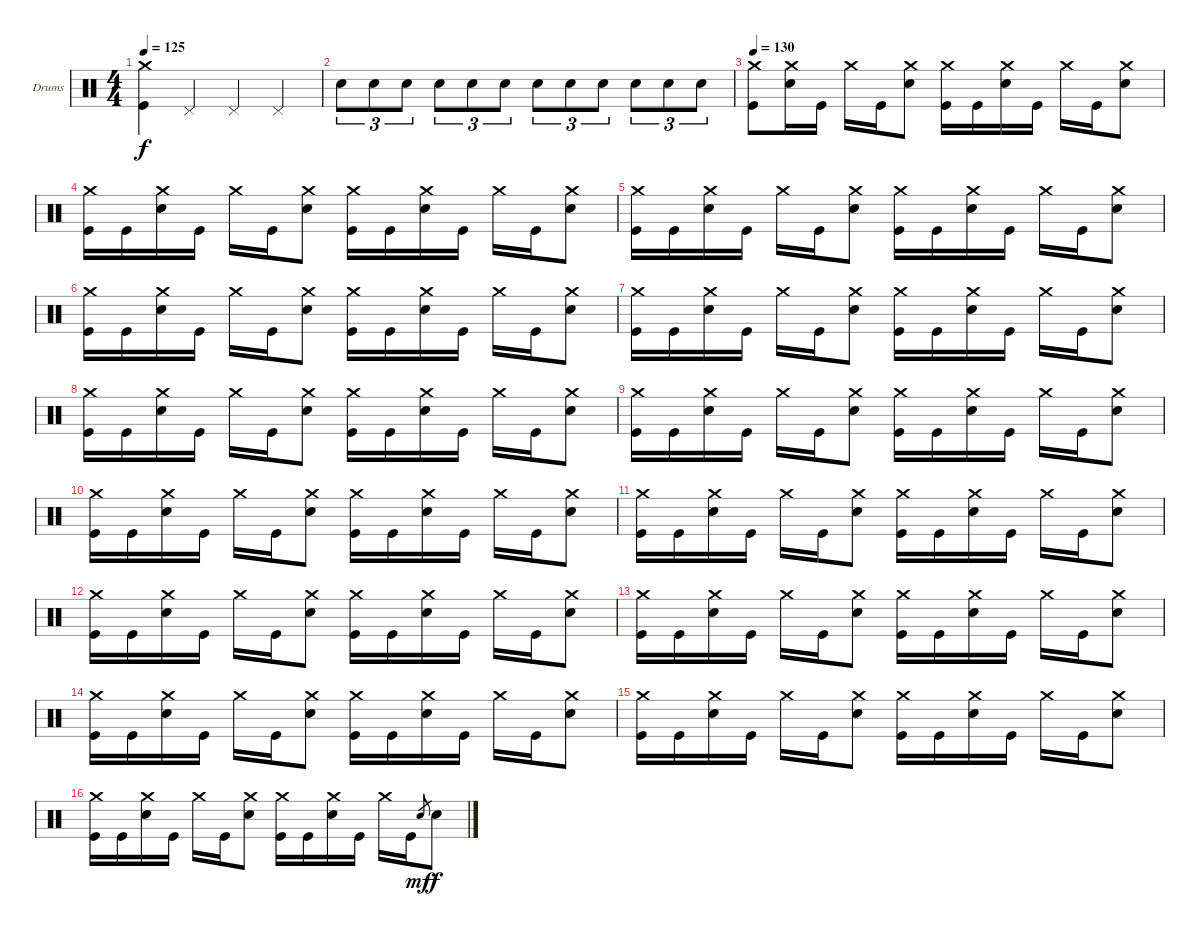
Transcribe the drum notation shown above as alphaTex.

\bracketExtendMode groupsimilarinstruments
\firstSystemTrackNameOrientation horizontal
\otherSystemsTrackNameOrientation horizontal
\track ("Drumkit" "Drums") {instrument percussion}
\staff {score}
\articulation defaults
\ts (4 4)
\tempo 125
\clef neutral
\ks c
("Kick (hit)" "Crash medium (hit)").4{dy f} "Pedal Hi-Hat (hit)".4 "Pedal Hi-Hat (hit)".4 "Pedal Hi-Hat (hit)".4 |
"Snare (hit) 2".8{tu (3 2)} "Snare (hit) 2".8{tu (3 2)} "Snare (hit) 2".8{tu (3 2)} "Snare (hit) 2".8{tu (3 2)} "Snare (hit) 2".8{tu (3 2)} "Snare (hit) 2".8{tu (3 2)} "Snare (hit) 2".8{tu (3 2)} "Snare (hit) 2".8{tu (3 2)} "Snare (hit) 2".8{tu (3 2)} "Snare (hit) 2".8{tu (3 2)} "Snare (hit) 2".8{tu (3 2)} "Snare (hit) 2".8{tu (3 2)} |
\tempo 130
("Kick (hit)" "Crash medium (hit)").8 ("Snare (hit) 2" "Crash medium (hit)").16 "Kick (hit)".16 "Crash medium (hit)".16 "Kick (hit)".16 ("Snare (hit) 2" "Crash medium (hit)").8 ("Kick (hit)" "Crash medium (hit)").16 "Kick (hit)".16 ("Snare (hit) 2" "Crash medium (hit)").16 "Kick (hit)".16 "Crash medium (hit)".16 "Kick (hit)".16 ("Snare (hit) 2" "Crash medium (hit)").8 |
("Kick (hit)" "Crash medium (hit)").16 "Kick (hit)".16 ("Snare (hit) 2" "Crash medium (hit)").16 "Kick (hit)".16 "Crash medium (hit)".16 "Kick (hit)".16 ("Snare (hit) 2" "Crash medium (hit)").8 ("Kick (hit)" "Crash medium (hit)").16 "Kick (hit)".16 ("Snare (hit) 2" "Crash medium (hit)").16 "Kick (hit)".16 "Crash medium (hit)".16 "Kick (hit)".16 ("Snare (hit) 2" "Crash medium (hit)").8 |
("Kick (hit)" "Crash medium (hit)").16 "Kick (hit)".16 ("Snare (hit) 2" "Crash medium (hit)").16 "Kick (hit)".16 "Crash medium (hit)".16 "Kick (hit)".16 ("Snare (hit) 2" "Crash medium (hit)").8 ("Kick (hit)" "Crash medium (hit)").16 "Kick (hit)".16 ("Snare (hit) 2" "Crash medium (hit)").16 "Kick (hit)".16 "Crash medium (hit)".16 "Kick (hit)".16 ("Snare (hit) 2" "Crash medium (hit)").8 |
("Kick (hit)" "Crash medium (hit)").16 "Kick (hit)".16 ("Snare (hit) 2" "Crash medium (hit)").16 "Kick (hit)".16 "Crash medium (hit)".16 "Kick (hit)".16 ("Snare (hit) 2" "Crash medium (hit)").8 ("Kick (hit)" "Crash medium (hit)").16 "Kick (hit)".16 ("Snare (hit) 2" "Crash medium (hit)").16 "Kick (hit)".16 "Crash medium (hit)".16 "Kick (hit)".16 ("Snare (hit) 2" "Crash medium (hit)").8 |
("Kick (hit)" "Crash medium (hit)").16 "Kick (hit)".16 ("Snare (hit) 2" "Crash medium (hit)").16 "Kick (hit)".16 "Crash medium (hit)".16 "Kick (hit)".16 ("Snare (hit) 2" "Crash medium (hit)").8 ("Kick (hit)" "Crash medium (hit)").16 "Kick (hit)".16 ("Snare (hit) 2" "Crash medium (hit)").16 "Kick (hit)".16 "Crash medium (hit)".16 "Kick (hit)".16 ("Snare (hit) 2" "Crash medium (hit)").8 |
("Kick (hit)" "Crash medium (hit)").16 "Kick (hit)".16 ("Snare (hit) 2" "Crash medium (hit)").16 "Kick (hit)".16 "Crash medium (hit)".16 "Kick (hit)".16 ("Snare (hit) 2" "Crash medium (hit)").8 ("Kick (hit)" "Crash medium (hit)").16 "Kick (hit)".16 ("Snare (hit) 2" "Crash medium (hit)").16 "Kick (hit)".16 "Crash medium (hit)".16 "Kick (hit)".16 ("Snare (hit) 2" "Crash medium (hit)").8 |
("Kick (hit)" "Crash medium (hit)").16 "Kick (hit)".16 ("Snare (hit) 2" "Crash medium (hit)").16 "Kick (hit)".16 "Crash medium (hit)".16 "Kick (hit)".16 ("Snare (hit) 2" "Crash medium (hit)").8 ("Kick (hit)" "Crash medium (hit)").16 "Kick (hit)".16 ("Snare (hit) 2" "Crash medium (hit)").16 "Kick (hit)".16 "Crash medium (hit)".16 "Kick (hit)".16 ("Snare (hit) 2" "Crash medium (hit)").8 |
("Kick (hit)" "Crash medium (hit)").16 "Kick (hit)".16 ("Snare (hit) 2" "Crash medium (hit)").16 "Kick (hit)".16 "Crash medium (hit)".16 "Kick (hit)".16 ("Snare (hit) 2" "Crash medium (hit)").8 ("Kick (hit)" "Crash medium (hit)").16 "Kick (hit)".16 ("Snare (hit) 2" "Crash medium (hit)").16 "Kick (hit)".16 "Crash medium (hit)".16 "Kick (hit)".16 ("Snare (hit) 2" "Crash medium (hit)").8 |
("Kick (hit)" "Crash medium (hit)").16 "Kick (hit)".16 ("Snare (hit) 2" "Crash medium (hit)").16 "Kick (hit)".16 "Crash medium (hit)".16 "Kick (hit)".16 ("Snare (hit) 2" "Crash medium (hit)").8 ("Kick (hit)" "Crash medium (hit)").16 "Kick (hit)".16 ("Snare (hit) 2" "Crash medium (hit)").16 "Kick (hit)".16 "Crash medium (hit)".16 "Kick (hit)".16 ("Snare (hit) 2" "Crash medium (hit)").8 |
("Kick (hit)" "Crash medium (hit)").16 "Kick (hit)".16 ("Snare (hit) 2" "Crash medium (hit)").16 "Kick (hit)".16 "Crash medium (hit)".16 "Kick (hit)".16 ("Snare (hit) 2" "Crash medium (hit)").8 ("Kick (hit)" "Crash medium (hit)").16 "Kick (hit)".16 ("Snare (hit) 2" "Crash medium (hit)").16 "Kick (hit)".16 "Crash medium (hit)".16 "Kick (hit)".16 ("Snare (hit) 2" "Crash medium (hit)").8 |
("Kick (hit)" "Crash medium (hit)").16 "Kick (hit)".16 ("Snare (hit) 2" "Crash medium (hit)").16 "Kick (hit)".16 "Crash medium (hit)".16 "Kick (hit)".16 ("Snare (hit) 2" "Crash medium (hit)").8 ("Kick (hit)" "Crash medium (hit)").16 "Kick (hit)".16 ("Snare (hit) 2" "Crash medium (hit)").16 "Kick (hit)".16 "Crash medium (hit)".16 "Kick (hit)".16 ("Snare (hit) 2" "Crash medium (hit)").8 |
("Kick (hit)" "Crash medium (hit)").16 "Kick (hit)".16 ("Snare (hit) 2" "Crash medium (hit)").16 "Kick (hit)".16 "Crash medium (hit)".16 "Kick (hit)".16 ("Snare (hit) 2" "Crash medium (hit)").8 ("Kick (hit)" "Crash medium (hit)").16 "Kick (hit)".16 ("Snare (hit) 2" "Crash medium (hit)").16 "Kick (hit)".16 "Crash medium (hit)".16 "Kick (hit)".16 ("Snare (hit) 2" "Crash medium (hit)").8 |
("Kick (hit)" "Crash medium (hit)").16 "Kick (hit)".16 ("Snare (hit) 2" "Crash medium (hit)").16 "Kick (hit)".16 "Crash medium (hit)".16 "Kick (hit)".16 ("Snare (hit) 2" "Crash medium (hit)").8 ("Kick (hit)" "Crash medium (hit)").16 "Kick (hit)".16 ("Snare (hit) 2" "Crash medium (hit)").16 "Kick (hit)".16 "Crash medium (hit)".16 "Kick (hit)".16 ("Snare (hit) 2" "Crash medium (hit)").8 |
("Kick (hit)" "Crash medium (hit)").16 "Kick (hit)".16 ("Snare (hit) 2" "Crash medium (hit)").16 "Kick (hit)".16 "Crash medium (hit)".16 "Kick (hit)".16 ("Snare (hit) 2" "Crash medium (hit)").8 ("Kick (hit)" "Crash medium (hit)").16 "Kick (hit)".16 ("Snare (hit) 2" "Crash medium (hit)").16 "Kick (hit)".16 "Crash medium (hit)".16 "Kick (hit)".16 "Snare (hit) 2".8{gr dy mf} "Snare (hit) 2".8{dy f}
